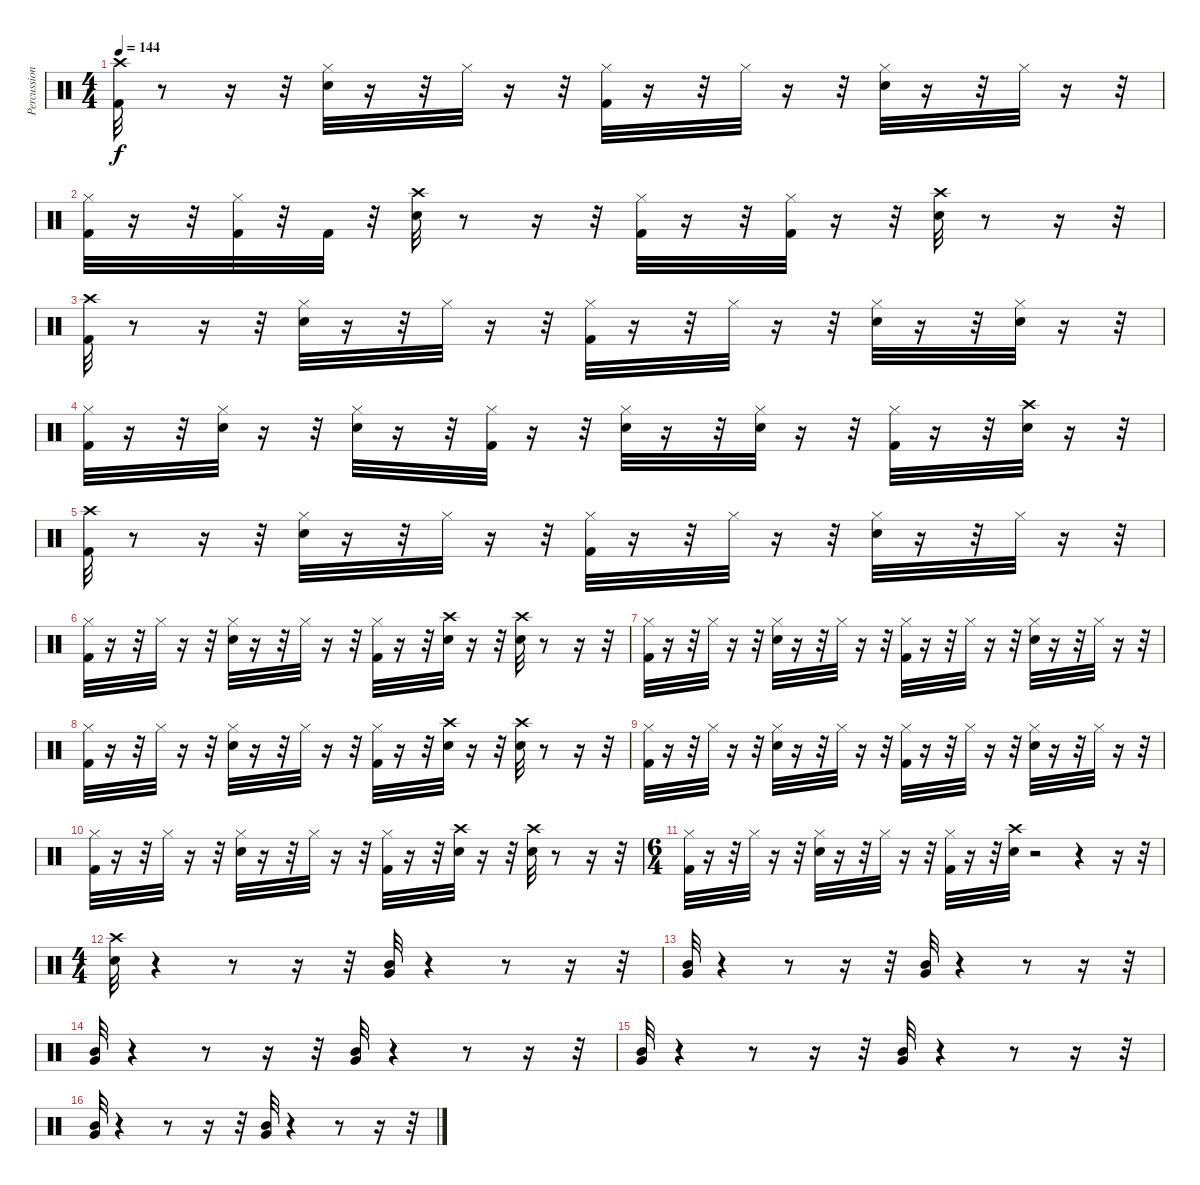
\track ("Percussion" "Percussion") {instrument percussion}
\staff {score}
\articulation defaults
\ts (4 4)
\tempo 144
\clef neutral
\ks c
("Kick (hit) 2" "Crash high (hit)").32{dy f} r.8 r.16 r.32 ("Hi-Hat (closed)" "Snare (hit) 2").32 r.16 r.32 "Hi-Hat (closed)".32 r.16 r.32 ("Hi-Hat (closed)" "Kick (hit) 2").32 r.16 r.32 "Hi-Hat (closed)".32 r.16 r.32 ("Snare (hit) 2" "Hi-Hat (closed)").32 r.16 r.32 "Hi-Hat (closed)".32 r.16 r.32 |
("Kick (hit) 2" "Hi-Hat (closed)").32 r.16 r.32 ("Kick (hit) 2" "Hi-Hat (closed)").32 r.32 "Kick (hit) 2".32 r.32 ("Crash high (hit)" "Snare (hit) 2").32 r.8 r.16 r.32 ("Kick (hit) 2" "Hi-Hat (closed)").32 r.16 r.32 ("Kick (hit) 2" "Hi-Hat (closed)").32 r.16 r.32 ("Snare (hit) 2" "Crash high (hit)").32 r.8 r.16 r.32 |
("Crash high (hit)" "Kick (hit) 2").32 r.8 r.16 r.32 ("Hi-Hat (closed)" "Snare (hit) 2").32 r.16 r.32 "Hi-Hat (closed)".32 r.16 r.32 ("Hi-Hat (closed)" "Kick (hit) 2").32 r.16 r.32 "Hi-Hat (closed)".32 r.16 r.32 ("Snare (hit) 2" "Hi-Hat (closed)").32 r.16 r.32 ("Snare (hit) 2" "Hi-Hat (closed)").32 r.16 r.32 |
("Hi-Hat (closed)" "Kick (hit) 2").32 r.16 r.32 ("Hi-Hat (closed)" "Snare (hit) 2").32 r.16 r.32 ("Hi-Hat (closed)" "Snare (hit) 2").32 r.16 r.32 ("Hi-Hat (closed)" "Kick (hit) 2").32 r.16 r.32 ("Snare (hit) 2" "Hi-Hat (closed)").32 r.16 r.32 ("Snare (hit) 2" "Hi-Hat (closed)").32 r.16 r.32 ("Kick (hit) 2" "Hi-Hat (closed)").32 r.16 r.32 ("Snare (hit) 2" "Crash high (hit)").32 r.16 r.32 |
("Kick (hit) 2" "Crash high (hit)").32 r.8 r.16 r.32 ("Hi-Hat (closed)" "Snare (hit) 2").32 r.16 r.32 "Hi-Hat (closed)".32 r.16 r.32 ("Hi-Hat (closed)" "Kick (hit) 2").32 r.16 r.32 "Hi-Hat (closed)".32 r.16 r.32 ("Snare (hit) 2" "Hi-Hat (closed)").32 r.16 r.32 "Hi-Hat (closed)".32 r.16 r.32 |
("Hi-Hat (closed)" "Kick (hit) 2").32 r.16 r.32 "Hi-Hat (closed)".32 r.16 r.32 ("Snare (hit) 2" "Hi-Hat (closed)").32 r.16 r.32 "Hi-Hat (closed)".32 r.16 r.32 ("Hi-Hat (closed)" "Kick (hit) 2").32 r.16 r.32 ("Snare (hit) 2" "Crash high (hit)").32 r.16 r.32 ("Snare (hit) 2" "Crash high (hit)").32 r.8 r.16 r.32 |
("Hi-Hat (closed)" "Kick (hit) 2").32 r.16 r.32 "Hi-Hat (closed)".32 r.16 r.32 ("Snare (hit) 2" "Hi-Hat (closed)").32 r.16 r.32 "Hi-Hat (closed)".32 r.16 r.32 ("Hi-Hat (closed)" "Kick (hit) 2").32 r.16 r.32 "Hi-Hat (closed)".32 r.16 r.32 ("Snare (hit) 2" "Hi-Hat (closed)").32 r.16 r.32 "Hi-Hat (closed)".32 r.16 r.32 |
("Hi-Hat (closed)" "Kick (hit) 2").32 r.16 r.32 "Hi-Hat (closed)".32 r.16 r.32 ("Snare (hit) 2" "Hi-Hat (closed)").32 r.16 r.32 "Hi-Hat (closed)".32 r.16 r.32 ("Hi-Hat (closed)" "Kick (hit) 2").32 r.16 r.32 ("Crash high (hit)" "Snare (hit) 2").32 r.16 r.32 ("Crash high (hit)" "Snare (hit) 2").32 r.8 r.16 r.32 |
("Hi-Hat (closed)" "Kick (hit) 2").32 r.16 r.32 "Hi-Hat (closed)".32 r.16 r.32 ("Snare (hit) 2" "Hi-Hat (closed)").32 r.16 r.32 "Hi-Hat (closed)".32 r.16 r.32 ("Hi-Hat (closed)" "Kick (hit) 2").32 r.16 r.32 "Hi-Hat (closed)".32 r.16 r.32 ("Snare (hit) 2" "Hi-Hat (closed)").32 r.16 r.32 "Hi-Hat (closed)".32 r.16 r.32 |
("Hi-Hat (closed)" "Kick (hit) 2").32 r.16 r.32 "Hi-Hat (closed)".32 r.16 r.32 ("Snare (hit) 2" "Hi-Hat (closed)").32 r.16 r.32 "Hi-Hat (closed)".32 r.16 r.32 ("Hi-Hat (closed)" "Kick (hit) 2").32 r.16 r.32 ("Crash high (hit)" "Snare (hit) 2").32 r.16 r.32 ("Crash high (hit)" "Snare (hit) 2").32 r.8 r.16 r.32 |
\ts (6 4)
("Hi-Hat (closed)" "Kick (hit) 2").32 r.16 r.32 "Hi-Hat (closed)".32 r.16 r.32 ("Snare (hit) 2" "Hi-Hat (closed)").32 r.16 r.32 "Hi-Hat (closed)".32 r.16 r.32 ("Hi-Hat (closed)" "Kick (hit) 2").32 r.16 r.32 ("Crash high (hit)" "Snare (hit) 2").32 r.2 r.4 r.16 r.32 |
\ts (4 4)
("Snare (hit) 2" "Crash high (hit)").32 r.4 r.8 r.16 r.32 ("Mid Tom (hit)" "Very Low Tom (hit)").32 r.4 r.8 r.16 r.32 |
("Very Low Tom (hit)" "Mid Tom (hit)").32 r.4 r.8 r.16 r.32 ("Very Low Tom (hit)" "Mid Tom (hit)").32 r.4 r.8 r.16 r.32 |
("Very Low Tom (hit)" "Mid Tom (hit)").32 r.4 r.8 r.16 r.32 ("Very Low Tom (hit)" "Mid Tom (hit)").32 r.4 r.8 r.16 r.32 |
("Very Low Tom (hit)" "Mid Tom (hit)").32 r.4 r.8 r.16 r.32 ("Very Low Tom (hit)" "Mid Tom (hit)").32 r.4 r.8 r.16 r.32 |
("Very Low Tom (hit)" "Mid Tom (hit)").32 r.4 r.8 r.16 r.32 ("Very Low Tom (hit)" "Mid Tom (hit)").32 r.4 r.8 r.16 r.32
